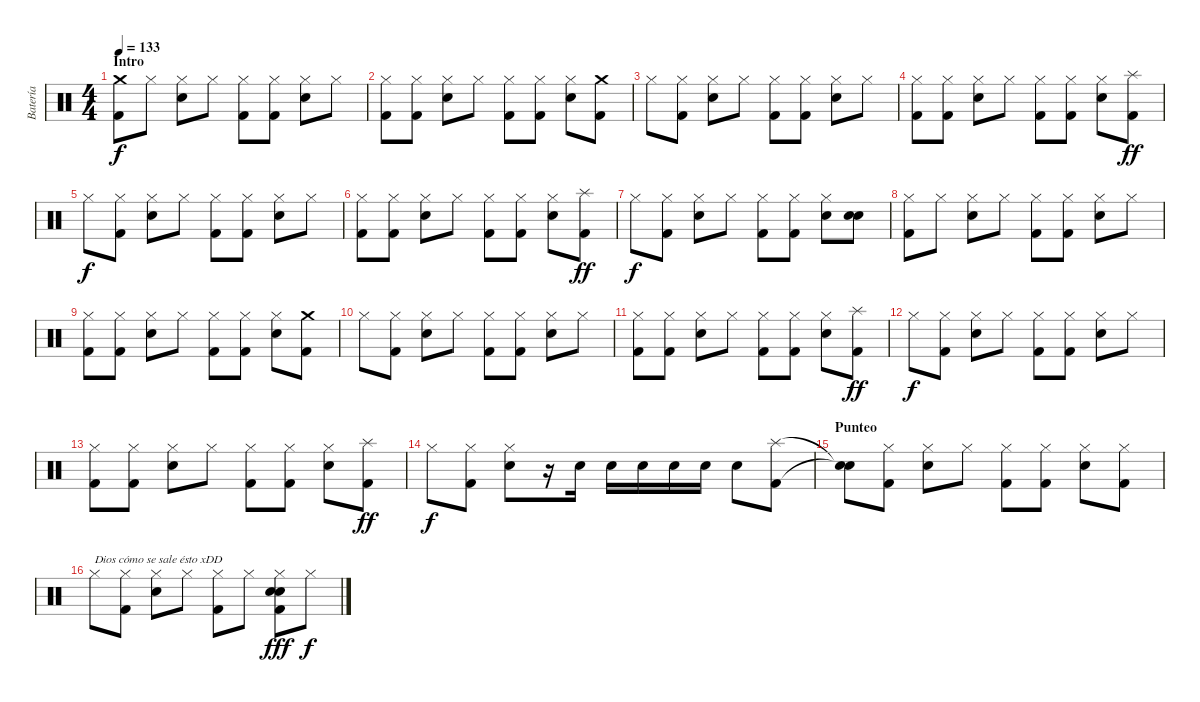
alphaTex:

\track ("Batería" "Batería") {instrument percussion}
\staff {score}
\articulation defaults
\ts (4 4)
\section ("" "Intro")
\tempo 133
\clef neutral
\ks c
("Crash medium (hit)" "Kick (hit) 2").8{dy f} "Hi-Hat (closed)".8 ("Hi-Hat (closed)" "Snare (hit) 2").8 "Hi-Hat (closed)".8 ("Hi-Hat (closed)" "Kick (hit) 2").8 ("Hi-Hat (closed)" "Kick (hit) 2").8 ("Hi-Hat (closed)" "Snare (hit) 2").8 "Hi-Hat (closed)".8 |
("Hi-Hat (closed)" "Kick (hit) 2").8 ("Hi-Hat (closed)" "Kick (hit) 2").8 ("Hi-Hat (closed)" "Snare (hit) 2").8 "Hi-Hat (closed)".8 ("Hi-Hat (closed)" "Kick (hit) 2").8 ("Hi-Hat (closed)" "Kick (hit) 2").8 ("Hi-Hat (closed)" "Snare (hit) 2").8 ("Crash medium (hit)" "Kick (hit) 2").8 |
"Hi-Hat (closed)".8 ("Hi-Hat (closed)" "Kick (hit) 2").8 ("Hi-Hat (closed)" "Snare (hit) 2").8 "Hi-Hat (closed)".8 ("Hi-Hat (closed)" "Kick (hit) 2").8 ("Hi-Hat (closed)" "Kick (hit) 2").8 ("Hi-Hat (closed)" "Snare (hit) 2").8 "Hi-Hat (closed)".8 |
("Hi-Hat (closed)" "Kick (hit) 2").8 ("Hi-Hat (closed)" "Kick (hit) 2").8 ("Hi-Hat (closed)" "Snare (hit) 2").8 "Hi-Hat (closed)".8 ("Hi-Hat (closed)" "Kick (hit) 2").8 ("Hi-Hat (closed)" "Kick (hit) 2").8 ("Hi-Hat (closed)" "Snare (hit) 2").8 ("Splash (hit)" "Kick (hit) 2").8{dy ff} |
"Hi-Hat (closed)".8{dy f} ("Hi-Hat (closed)" "Kick (hit) 2").8 ("Hi-Hat (closed)" "Snare (hit) 2").8 "Hi-Hat (closed)".8 ("Hi-Hat (closed)" "Kick (hit) 2").8 ("Hi-Hat (closed)" "Kick (hit) 2").8 ("Hi-Hat (closed)" "Snare (hit) 2").8 "Hi-Hat (closed)".8 |
("Hi-Hat (closed)" "Kick (hit) 2").8 ("Hi-Hat (closed)" "Kick (hit) 2").8 ("Hi-Hat (closed)" "Snare (hit) 2").8 "Hi-Hat (closed)".8 ("Hi-Hat (closed)" "Kick (hit) 2").8 ("Hi-Hat (closed)" "Kick (hit) 2").8 ("Hi-Hat (closed)" "Snare (hit) 2").8 ("Splash (hit)" "Kick (hit) 2").8{dy ff} |
"Hi-Hat (closed)".8{dy f} ("Hi-Hat (closed)" "Kick (hit) 2").8 ("Hi-Hat (closed)" "Snare (hit) 2").8 "Hi-Hat (closed)".8 ("Hi-Hat (closed)" "Kick (hit) 2").8 ("Hi-Hat (closed)" "Kick (hit) 2").8 ("Hi-Hat (closed)" "Snare (hit) 2").8 ("Snare (hit) 2" "Snare (hit) 2").8 |
("Hi-Hat (closed)" "Kick (hit) 2").8 "Hi-Hat (closed)".8 ("Hi-Hat (closed)" "Snare (hit) 2").8 "Hi-Hat (closed)".8 ("Hi-Hat (closed)" "Kick (hit) 2").8 ("Hi-Hat (closed)" "Kick (hit) 2").8 ("Hi-Hat (closed)" "Snare (hit) 2").8 "Hi-Hat (closed)".8 |
("Hi-Hat (closed)" "Kick (hit) 2").8 ("Hi-Hat (closed)" "Kick (hit) 2").8 ("Hi-Hat (closed)" "Snare (hit) 2").8 "Hi-Hat (closed)".8 ("Hi-Hat (closed)" "Kick (hit) 2").8 ("Hi-Hat (closed)" "Kick (hit) 2").8 ("Hi-Hat (closed)" "Snare (hit) 2").8 ("Crash medium (hit)" "Kick (hit) 2").8 |
"Hi-Hat (closed)".8 ("Hi-Hat (closed)" "Kick (hit) 2").8 ("Hi-Hat (closed)" "Snare (hit) 2").8 "Hi-Hat (closed)".8 ("Hi-Hat (closed)" "Kick (hit) 2").8 ("Hi-Hat (closed)" "Kick (hit) 2").8 ("Hi-Hat (closed)" "Snare (hit) 2").8 "Hi-Hat (closed)".8 |
("Hi-Hat (closed)" "Kick (hit) 2").8 ("Hi-Hat (closed)" "Kick (hit) 2").8 ("Hi-Hat (closed)" "Snare (hit) 2").8 "Hi-Hat (closed)".8 ("Hi-Hat (closed)" "Kick (hit) 2").8 ("Hi-Hat (closed)" "Kick (hit) 2").8 ("Hi-Hat (closed)" "Snare (hit) 2").8 ("Splash (hit)" "Kick (hit) 2").8{dy ff} |
"Hi-Hat (closed)".8{dy f} ("Hi-Hat (closed)" "Kick (hit) 2").8 ("Hi-Hat (closed)" "Snare (hit) 2").8 "Hi-Hat (closed)".8 ("Hi-Hat (closed)" "Kick (hit) 2").8 ("Hi-Hat (closed)" "Kick (hit) 2").8 ("Hi-Hat (closed)" "Snare (hit) 2").8 "Hi-Hat (closed)".8 |
("Hi-Hat (closed)" "Kick (hit) 2").8 ("Hi-Hat (closed)" "Kick (hit) 2").8 ("Hi-Hat (closed)" "Snare (hit) 2").8 "Hi-Hat (closed)".8 ("Hi-Hat (closed)" "Kick (hit) 2").8 ("Hi-Hat (closed)" "Kick (hit) 2").8 ("Hi-Hat (closed)" "Snare (hit) 2").8 ("Splash (hit)" "Kick (hit) 2").8{dy ff} |
"Hi-Hat (closed)".8{dy f} ("Hi-Hat (closed)" "Kick (hit) 2").8 ("Hi-Hat (closed)" "Snare (hit) 2").8 r.16 "Snare (hit) 2".16 "Snare (hit) 2".16 "Snare (hit) 2".16 "Snare (hit) 2".16 "Snare (hit) 2".16 "Snare (hit) 2".8 ("Splash (hit)" "Kick (hit) 2").8 |
\section ("" "Punteo")
("Snare (hit)"{t} "Snare (hit)"{t}).8 ("Hi-Hat (closed)" "Kick (hit) 2").8 ("Hi-Hat (closed)" "Snare (hit) 2").8 "Hi-Hat (closed)".8 ("Hi-Hat (closed)" "Kick (hit) 2").8 ("Hi-Hat (closed)" "Kick (hit) 2").8 ("Hi-Hat (closed)" "Snare (hit) 2").8 ("Hi-Hat (closed)" "Kick (hit) 2").8 |
"Hi-Hat (closed)".8{txt "Dios cómo se sale ésto xDD"} ("Hi-Hat (closed)" "Kick (hit) 2").8 ("Hi-Hat (closed)" "Snare (hit) 2").8 "Hi-Hat (closed)".8 ("Hi-Hat (closed)" "Kick (hit) 2").8 "Hi-Hat (closed)".8 ("Hi-Hat (closed)" "Snare (hit) 2" "Snare (hit) 2" "Kick (hit) 2").8{dy fff} "Hi-Hat (closed)".8{dy f}
